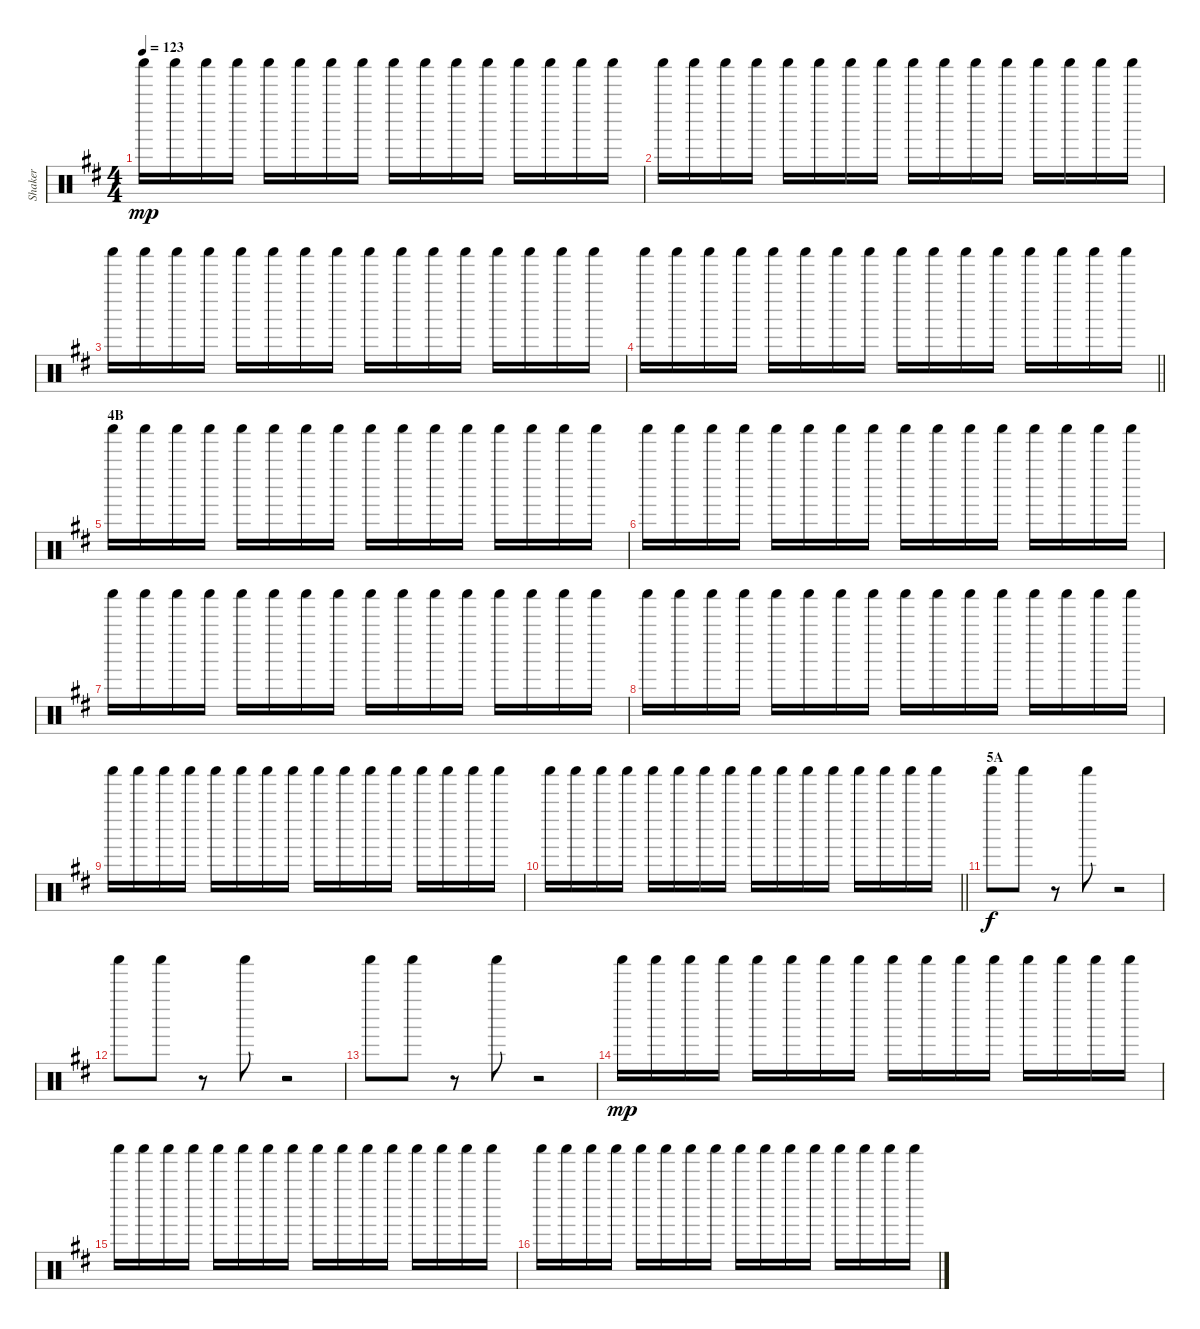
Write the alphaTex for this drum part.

\track ("Shaker" "Shaker") {instrument percussion}
\staff {score}
\articulation defaults
\ts (4 4)
\tempo 123
\clef neutral
\ks d "Shaker (hit)".16{dy mp} "Shaker (hit)".16 "Shaker (hit)".16 "Shaker (hit)".16 "Shaker (hit)".16 "Shaker (hit)".16 "Shaker (hit)".16 "Shaker (hit)".16 "Shaker (hit)".16 "Shaker (hit)".16 "Shaker (hit)".16 "Shaker (hit)".16 "Shaker (hit)".16 "Shaker (hit)".16 "Shaker (hit)".16 "Shaker (hit)".16
|
"Shaker (hit)".16 "Shaker (hit)".16 "Shaker (hit)".16 "Shaker (hit)".16 "Shaker (hit)".16 "Shaker (hit)".16 "Shaker (hit)".16 "Shaker (hit)".16 "Shaker (hit)".16 "Shaker (hit)".16 "Shaker (hit)".16 "Shaker (hit)".16 "Shaker (hit)".16 "Shaker (hit)".16 "Shaker (hit)".16 "Shaker (hit)".16 |
"Shaker (hit)".16 "Shaker (hit)".16 "Shaker (hit)".16 "Shaker (hit)".16 "Shaker (hit)".16 "Shaker (hit)".16 "Shaker (hit)".16 "Shaker (hit)".16 "Shaker (hit)".16 "Shaker (hit)".16 "Shaker (hit)".16 "Shaker (hit)".16 "Shaker (hit)".16 "Shaker (hit)".16 "Shaker (hit)".16 "Shaker (hit)".16 |
\barLineRight lightlight "Shaker (hit)".16 "Shaker (hit)".16 "Shaker (hit)".16 "Shaker (hit)".16 "Shaker (hit)".16 "Shaker (hit)".16 "Shaker (hit)".16 "Shaker (hit)".16 "Shaker (hit)".16 "Shaker (hit)".16 "Shaker (hit)".16 "Shaker (hit)".16 "Shaker (hit)".16 "Shaker (hit)".16 "Shaker (hit)".16 "Shaker (hit)".16
|
\section ("" "4B")
"Shaker (hit)".16 "Shaker (hit)".16 "Shaker (hit)".16 "Shaker (hit)".16 "Shaker (hit)".16 "Shaker (hit)".16 "Shaker (hit)".16 "Shaker (hit)".16 "Shaker (hit)".16 "Shaker (hit)".16 "Shaker (hit)".16 "Shaker (hit)".16 "Shaker (hit)".16 "Shaker (hit)".16 "Shaker (hit)".16 "Shaker (hit)".16 |
"Shaker (hit)".16 "Shaker (hit)".16 "Shaker (hit)".16 "Shaker (hit)".16 "Shaker (hit)".16 "Shaker (hit)".16 "Shaker (hit)".16 "Shaker (hit)".16 "Shaker (hit)".16 "Shaker (hit)".16 "Shaker (hit)".16 "Shaker (hit)".16 "Shaker (hit)".16 "Shaker (hit)".16 "Shaker (hit)".16 "Shaker (hit)".16 |
"Shaker (hit)".16 "Shaker (hit)".16 "Shaker (hit)".16 "Shaker (hit)".16 "Shaker (hit)".16 "Shaker (hit)".16 "Shaker (hit)".16 "Shaker (hit)".16 "Shaker (hit)".16 "Shaker (hit)".16 "Shaker (hit)".16 "Shaker (hit)".16 "Shaker (hit)".16 "Shaker (hit)".16 "Shaker (hit)".16 "Shaker (hit)".16 |
"Shaker (hit)".16 "Shaker (hit)".16 "Shaker (hit)".16 "Shaker (hit)".16 "Shaker (hit)".16 "Shaker (hit)".16 "Shaker (hit)".16 "Shaker (hit)".16 "Shaker (hit)".16 "Shaker (hit)".16 "Shaker (hit)".16 "Shaker (hit)".16 "Shaker (hit)".16 "Shaker (hit)".16 "Shaker (hit)".16 "Shaker (hit)".16 |
"Shaker (hit)".16 "Shaker (hit)".16 "Shaker (hit)".16 "Shaker (hit)".16 "Shaker (hit)".16 "Shaker (hit)".16 "Shaker (hit)".16 "Shaker (hit)".16 "Shaker (hit)".16 "Shaker (hit)".16 "Shaker (hit)".16 "Shaker (hit)".16 "Shaker (hit)".16 "Shaker (hit)".16 "Shaker (hit)".16 "Shaker (hit)".16 |
\barLineRight lightlight "Shaker (hit)".16 "Shaker (hit)".16 "Shaker (hit)".16 "Shaker (hit)".16 "Shaker (hit)".16 "Shaker (hit)".16 "Shaker (hit)".16 "Shaker (hit)".16 "Shaker (hit)".16 "Shaker (hit)".16 "Shaker (hit)".16 "Shaker (hit)".16 "Shaker (hit)".16 "Shaker (hit)".16 "Shaker (hit)".16 "Shaker (hit)".16
|
\section ("" "5A")
"Shaker (hit)".8{dy f} "Shaker (hit)".8 r.8 "Shaker (hit)".8 r.2 |
"Shaker (hit)".8 "Shaker (hit)".8 r.8 "Shaker (hit)".8 r.2 |
"Shaker (hit)".8 "Shaker (hit)".8 r.8 "Shaker (hit)".8 r.2 |
"Shaker (hit)".16{dy mp} "Shaker (hit)".16 "Shaker (hit)".16 "Shaker (hit)".16 "Shaker (hit)".16 "Shaker (hit)".16 "Shaker (hit)".16 "Shaker (hit)".16 "Shaker (hit)".16 "Shaker (hit)".16 "Shaker (hit)".16 "Shaker (hit)".16 "Shaker (hit)".16 "Shaker (hit)".16 "Shaker (hit)".16 "Shaker (hit)".16 |
"Shaker (hit)".16 "Shaker (hit)".16 "Shaker (hit)".16 "Shaker (hit)".16 "Shaker (hit)".16 "Shaker (hit)".16 "Shaker (hit)".16 "Shaker (hit)".16 "Shaker (hit)".16 "Shaker (hit)".16 "Shaker (hit)".16 "Shaker (hit)".16 "Shaker (hit)".16 "Shaker (hit)".16 "Shaker (hit)".16 "Shaker (hit)".16 |
"Shaker (hit)".16 "Shaker (hit)".16 "Shaker (hit)".16 "Shaker (hit)".16 "Shaker (hit)".16 "Shaker (hit)".16 "Shaker (hit)".16 "Shaker (hit)".16 "Shaker (hit)".16 "Shaker (hit)".16 "Shaker (hit)".16 "Shaker (hit)".16 "Shaker (hit)".16 "Shaker (hit)".16 "Shaker (hit)".16 "Shaker (hit)".16
